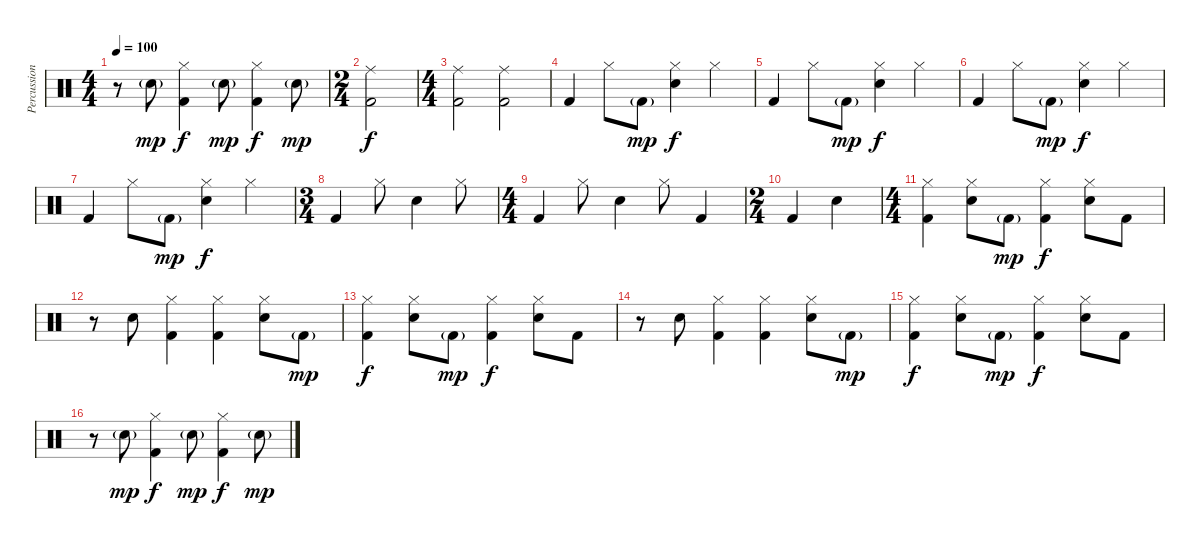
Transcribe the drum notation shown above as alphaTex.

\track ("Percussion" "Percussion") {instrument percussion}
\staff {score}
\articulation defaults
\ts (4 4)
\tempo 100
\clef neutral
\ks c
r.8{dy f} "Snare (hit) 2"{g}.8{dy mp} ("Hi-Hat (closed)" "Kick (hit) 2").4{dy f} "Snare (hit) 2"{g}.8{dy mp} ("Hi-Hat (closed)" "Kick (hit) 2").4{dy f} "Snare (hit) 2"{g}.8{dy mp} |
\ts (2 4)
("Ride (middle)" "Kick (hit) 2").2{dy f} |
\ts (4 4)
("Ride (middle)" "Kick (hit) 2").2 ("Ride (middle)" "Kick (hit) 2").2 |
"Kick (hit) 2".4 "Hi-Hat (closed)".8 "Kick (hit) 2"{g}.8{dy mp} ("Hi-Hat (closed)" "Snare (hit) 2").4{dy f} "Hi-Hat (closed)".4 |
"Kick (hit) 2".4 "Hi-Hat (closed)".8 "Kick (hit) 2"{g}.8{dy mp} ("Hi-Hat (closed)" "Snare (hit) 2").4{dy f} "Hi-Hat (closed)".4 |
"Kick (hit) 2".4 "Hi-Hat (closed)".8 "Kick (hit) 2"{g}.8{dy mp} ("Hi-Hat (closed)" "Snare (hit) 2").4{dy f} "Hi-Hat (closed)".4 |
"Kick (hit) 2".4 "Hi-Hat (closed)".8 "Kick (hit) 2"{g}.8{dy mp} ("Hi-Hat (closed)" "Snare (hit) 2").4{dy f} "Hi-Hat (closed)".4 |
\ts (3 4)
"Kick (hit) 2".4 "Hi-Hat (closed)".8 "Snare (hit) 2".4 "Hi-Hat (closed)".8 |
\ts (4 4)
"Kick (hit) 2".4 "Hi-Hat (closed)".8 "Snare (hit) 2".4 "Hi-Hat (closed)".8 "Kick (hit) 2".4 |
\ts (2 4)
"Kick (hit) 2".4 "Snare (hit) 2".4 |
\ts (4 4)
("Hi-Hat (closed)" "Kick (hit) 2").4 ("Hi-Hat (closed)" "Snare (hit) 2").8 "Kick (hit) 2"{g}.8{dy mp} ("Hi-Hat (closed)" "Kick (hit) 2").4{dy f} ("Hi-Hat (closed)" "Snare (hit) 2").8 "Kick (hit) 2".8 |
r.8 "Snare (hit) 2".8 ("Hi-Hat (closed)" "Kick (hit) 2").4 ("Hi-Hat (closed)" "Kick (hit) 2").4 ("Hi-Hat (closed)" "Snare (hit) 2").8 "Kick (hit) 2"{g}.8{dy mp} |
("Hi-Hat (closed)" "Kick (hit) 2").4{dy f} ("Hi-Hat (closed)" "Snare (hit) 2").8 "Kick (hit) 2"{g}.8{dy mp} ("Hi-Hat (closed)" "Kick (hit) 2").4{dy f} ("Hi-Hat (closed)" "Snare (hit) 2").8 "Kick (hit) 2".8 |
r.8 "Snare (hit) 2".8 ("Hi-Hat (closed)" "Kick (hit) 2").4 ("Hi-Hat (closed)" "Kick (hit) 2").4 ("Hi-Hat (closed)" "Snare (hit) 2").8 "Kick (hit) 2"{g}.8{dy mp} |
("Hi-Hat (closed)" "Kick (hit) 2").4{dy f} ("Hi-Hat (closed)" "Snare (hit) 2").8 "Kick (hit) 2"{g}.8{dy mp} ("Hi-Hat (closed)" "Kick (hit) 2").4{dy f} ("Hi-Hat (closed)" "Snare (hit) 2").8 "Kick (hit) 2".8 |
r.8 "Snare (hit) 2"{g}.8{dy mp} ("Hi-Hat (closed)" "Kick (hit) 2").4{dy f} "Snare (hit) 2"{g}.8{dy mp} ("Hi-Hat (closed)" "Kick (hit) 2").4{dy f} "Snare (hit) 2"{g}.8{dy mp}
